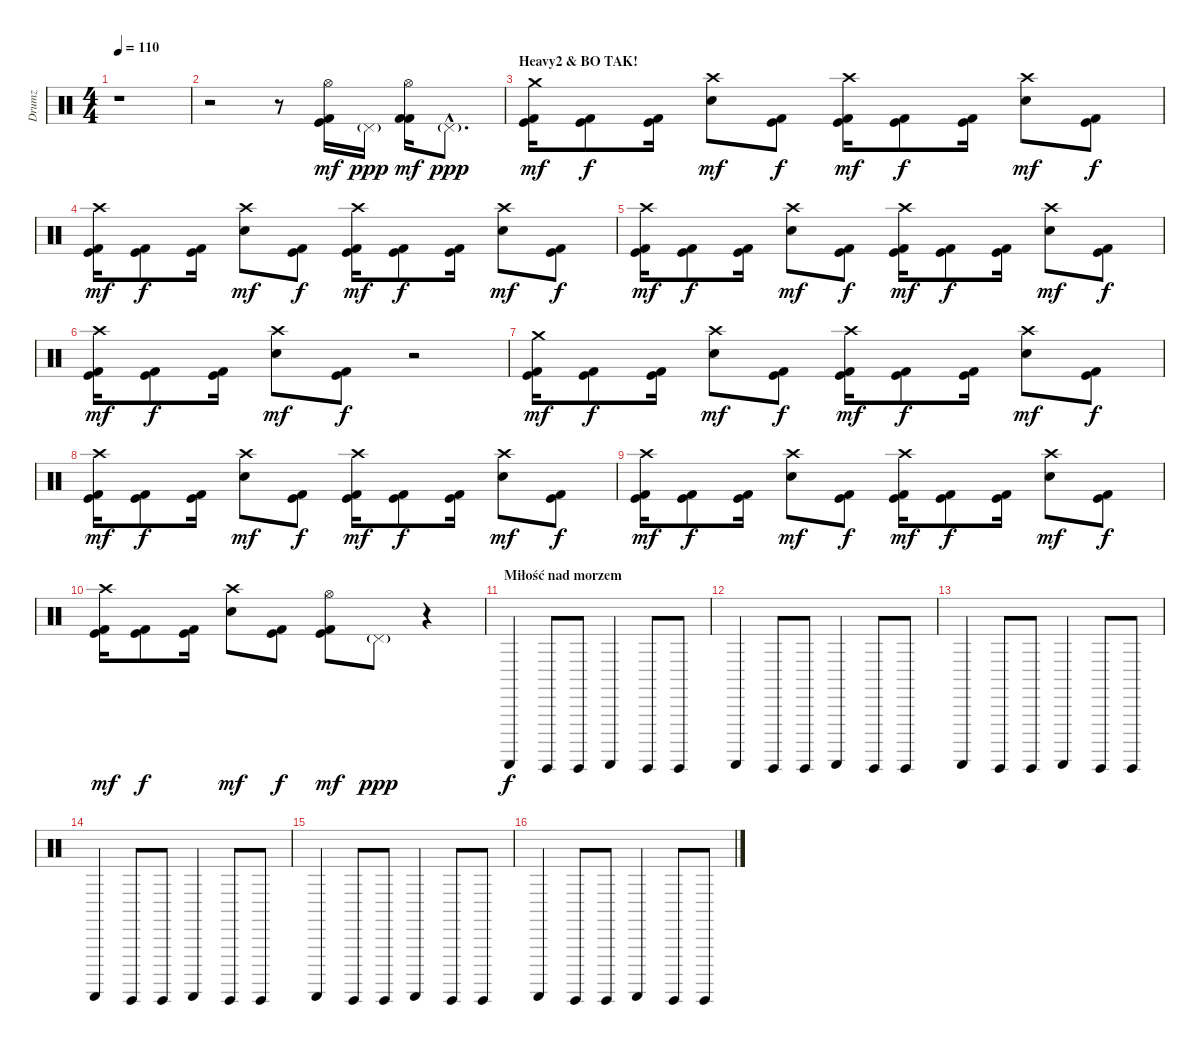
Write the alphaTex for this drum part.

\track ("Drumz" "Drumz") {instrument percussion}
\staff {score}
\articulation defaults
\ts (4 4)
\tempo 110
\clef neutral
\ks c
r.1{dy ppp} |
r.2 r.8 ("Kick (hit) 2" "Kick (hit)" "Hi-Hat (open)").16{dy mf} "Pedal Hi-Hat (hit)"{g}.16{dy ppp} ("Kick (hit) 2" "Kick (hit) 2" "Hi-Hat (open)").16{dy mf} "Pedal Hi-Hat (hit)"{g hac}.8{d dy ppp} |
\section ("" "Heavy2 & BO TAK!")
("Kick (hit) 2" "Kick (hit)" "Crash medium (hit)").16{dy mf} ("Kick (hit) 2" "Kick (hit)").8{dy f} ("Kick (hit) 2" "Kick (hit)").16 ("Snare (hit) 2" "Crash high (hit)").8{dy mf} ("Kick (hit) 2" "Kick (hit)").8{dy f} ("Kick (hit) 2" "Kick (hit)" "Crash high (hit)").16{dy mf} ("Kick (hit) 2" "Kick (hit)").8{dy f} ("Kick (hit) 2" "Kick (hit)").16 ("Snare (hit) 2" "Crash high (hit)").8{dy mf} ("Kick (hit) 2" "Kick (hit)").8{dy f} |
("Kick (hit) 2" "Kick (hit)" "Crash high (hit)").16{dy mf} ("Kick (hit) 2" "Kick (hit)").8{dy f} ("Kick (hit) 2" "Kick (hit)").16 ("Snare (hit) 2" "Crash high (hit)").8{dy mf} ("Kick (hit) 2" "Kick (hit)").8{dy f} ("Kick (hit) 2" "Kick (hit)" "Crash high (hit)").16{dy mf} ("Kick (hit) 2" "Kick (hit)").8{dy f} ("Kick (hit) 2" "Kick (hit)").16 ("Snare (hit) 2" "Crash high (hit)").8{dy mf} ("Kick (hit) 2" "Kick (hit)").8{dy f} |
("Kick (hit) 2" "Kick (hit)" "Crash high (hit)").16{dy mf} ("Kick (hit) 2" "Kick (hit)").8{dy f} ("Kick (hit) 2" "Kick (hit)").16 ("Snare (hit) 2" "Crash high (hit)").8{dy mf} ("Kick (hit) 2" "Kick (hit)").8{dy f} ("Kick (hit) 2" "Kick (hit)" "Crash high (hit)").16{dy mf} ("Kick (hit) 2" "Kick (hit)").8{dy f} ("Kick (hit) 2" "Kick (hit)").16 ("Snare (hit) 2" "Crash high (hit)").8{dy mf} ("Kick (hit) 2" "Kick (hit)").8{dy f} |
("Kick (hit) 2" "Kick (hit)" "Crash high (hit)").16{dy mf} ("Kick (hit) 2" "Kick (hit)").8{dy f} ("Kick (hit) 2" "Kick (hit)").16 ("Snare (hit) 2" "Crash high (hit)").8{dy mf} ("Kick (hit) 2" "Kick (hit)").8{dy f} r.2 |
("Kick (hit) 2" "Kick (hit)" "Crash medium (hit)").16{dy mf} ("Kick (hit) 2" "Kick (hit)").8{dy f} ("Kick (hit) 2" "Kick (hit)").16 ("Snare (hit) 2" "Crash high (hit)").8{dy mf} ("Kick (hit) 2" "Kick (hit)").8{dy f} ("Kick (hit) 2" "Kick (hit)" "Crash high (hit)").16{dy mf} ("Kick (hit) 2" "Kick (hit)").8{dy f} ("Kick (hit) 2" "Kick (hit)").16 ("Snare (hit) 2" "Crash high (hit)").8{dy mf} ("Kick (hit) 2" "Kick (hit)").8{dy f} |
("Kick (hit) 2" "Kick (hit)" "Crash high (hit)").16{dy mf} ("Kick (hit) 2" "Kick (hit)").8{dy f} ("Kick (hit) 2" "Kick (hit)").16 ("Snare (hit) 2" "Crash high (hit)").8{dy mf} ("Kick (hit) 2" "Kick (hit)").8{dy f} ("Kick (hit) 2" "Kick (hit)" "Crash high (hit)").16{dy mf} ("Kick (hit) 2" "Kick (hit)").8{dy f} ("Kick (hit) 2" "Kick (hit)").16 ("Snare (hit) 2" "Crash high (hit)").8{dy mf} ("Kick (hit) 2" "Kick (hit)").8{dy f} |
("Kick (hit) 2" "Kick (hit)" "Crash high (hit)").16{dy mf} ("Kick (hit) 2" "Kick (hit)").8{dy f} ("Kick (hit) 2" "Kick (hit)").16 ("Snare (hit) 2" "Crash high (hit)").8{dy mf} ("Kick (hit) 2" "Kick (hit)").8{dy f} ("Kick (hit) 2" "Kick (hit)" "Crash high (hit)").16{dy mf} ("Kick (hit) 2" "Kick (hit)").8{dy f} ("Kick (hit) 2" "Kick (hit)").16 ("Snare (hit) 2" "Crash high (hit)").8{dy mf} ("Kick (hit) 2" "Kick (hit)").8{dy f} |
("Kick (hit) 2" "Kick (hit)" "Crash high (hit)").16{dy mf} ("Kick (hit) 2" "Kick (hit)").8{dy f} ("Kick (hit) 2" "Kick (hit)").16 ("Snare (hit) 2" "Crash high (hit)").8{dy mf} ("Kick (hit) 2" "Kick (hit)").8{dy f} ("Kick (hit) 2" "Kick (hit)" "Hi-Hat (open)").8{dy mf} "Pedal Hi-Hat (hit)"{g}.8{dy ppp volume 0} r.4 |
\section ("" "Miłość nad morzem")
"Guiro (scrap-return)".4{dy f volume 16} "Guiro (hit)".8 "Guiro (hit)".8 "Guiro (scrap-return)".4 "Guiro (hit)".8 "Guiro (hit)".8 |
"Guiro (scrap-return)".4 "Guiro (hit)".8 "Guiro (hit)".8 "Guiro (scrap-return)".4 "Guiro (hit)".8 "Guiro (hit)".8 |
"Guiro (scrap-return)".4 "Guiro (hit)".8 "Guiro (hit)".8 "Guiro (scrap-return)".4 "Guiro (hit)".8 "Guiro (hit)".8 |
"Guiro (scrap-return)".4 "Guiro (hit)".8 "Guiro (hit)".8 "Guiro (scrap-return)".4 "Guiro (hit)".8 "Guiro (hit)".8 |
"Guiro (scrap-return)".4 "Guiro (hit)".8 "Guiro (hit)".8 "Guiro (scrap-return)".4 "Guiro (hit)".8 "Guiro (hit)".8 |
"Guiro (scrap-return)".4 "Guiro (hit)".8 "Guiro (hit)".8 "Guiro (scrap-return)".4 "Guiro (hit)".8 "Guiro (hit)".8
